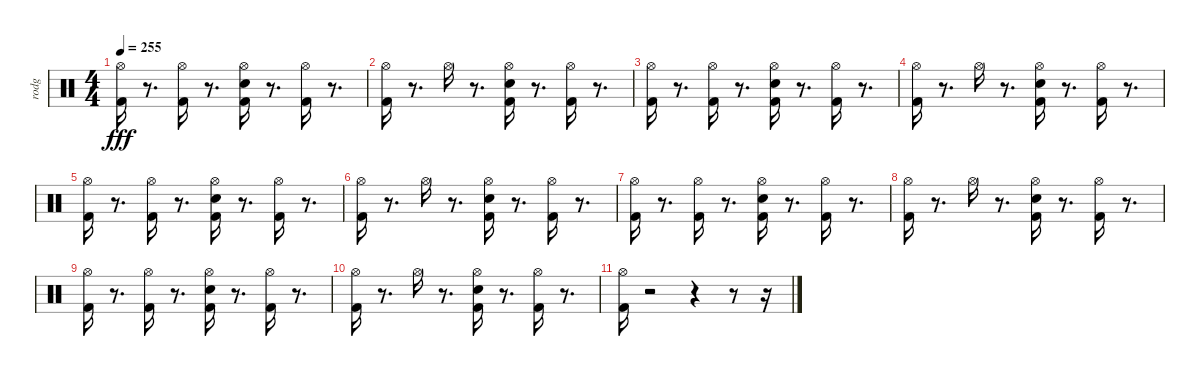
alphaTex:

\track ("rodg" "rodg") {instrument percussion}
\staff {score}
\articulation defaults
\ts (4 4)
\tempo 255
\clef neutral
\ks c
("Hi-Hat (open)" "Kick (hit) 2").16{dy fff} r.8{d} ("Kick (hit) 2" "Hi-Hat (open)").16 r.8{d} ("Kick (hit) 2" "Electric Snare (hit)" "Hi-Hat (open)").16 r.8{d} ("Kick (hit) 2" "Hi-Hat (open)").16 r.8{d} |
("Kick (hit) 2" "Hi-Hat (open)").16 r.8{d} "Hi-Hat (open)".16 r.8{d} ("Kick (hit) 2" "Electric Snare (hit)" "Hi-Hat (open)").16 r.8{d} ("Kick (hit) 2" "Hi-Hat (open)").16 r.8{d} |
("Hi-Hat (open)" "Kick (hit) 2").16 r.8{d} ("Kick (hit) 2" "Hi-Hat (open)").16 r.8{d} ("Kick (hit) 2" "Electric Snare (hit)" "Hi-Hat (open)").16 r.8{d} ("Kick (hit) 2" "Hi-Hat (open)").16 r.8{d} |
("Kick (hit) 2" "Hi-Hat (open)").16 r.8{d} "Hi-Hat (open)".16 r.8{d} ("Kick (hit) 2" "Electric Snare (hit)" "Hi-Hat (open)").16 r.8{d} ("Kick (hit) 2" "Hi-Hat (open)").16 r.8{d} |
("Hi-Hat (open)" "Kick (hit) 2").16 r.8{d} ("Kick (hit) 2" "Hi-Hat (open)").16 r.8{d} ("Kick (hit) 2" "Electric Snare (hit)" "Hi-Hat (open)").16 r.8{d} ("Kick (hit) 2" "Hi-Hat (open)").16 r.8{d} |
("Kick (hit) 2" "Hi-Hat (open)").16 r.8{d} "Hi-Hat (open)".16 r.8{d} ("Kick (hit) 2" "Electric Snare (hit)" "Hi-Hat (open)").16 r.8{d} ("Kick (hit) 2" "Hi-Hat (open)").16 r.8{d} |
("Hi-Hat (open)" "Kick (hit) 2").16 r.8{d} ("Kick (hit) 2" "Hi-Hat (open)").16 r.8{d} ("Kick (hit) 2" "Electric Snare (hit)" "Hi-Hat (open)").16 r.8{d} ("Kick (hit) 2" "Hi-Hat (open)").16 r.8{d} |
("Kick (hit) 2" "Hi-Hat (open)").16 r.8{d} "Hi-Hat (open)".16 r.8{d} ("Kick (hit) 2" "Electric Snare (hit)" "Hi-Hat (open)").16 r.8{d} ("Kick (hit) 2" "Hi-Hat (open)").16 r.8{d} |
("Hi-Hat (open)" "Kick (hit) 2").16 r.8{d} ("Kick (hit) 2" "Hi-Hat (open)").16 r.8{d} ("Kick (hit) 2" "Electric Snare (hit)" "Hi-Hat (open)").16 r.8{d} ("Kick (hit) 2" "Hi-Hat (open)").16 r.8{d} |
("Kick (hit) 2" "Hi-Hat (open)").16 r.8{d} "Hi-Hat (open)".16 r.8{d} ("Kick (hit) 2" "Electric Snare (hit)" "Hi-Hat (open)").16 r.8{d} ("Kick (hit) 2" "Hi-Hat (open)").16 r.8{d} |
("Hi-Hat (open)" "Kick (hit) 2").16 r.2 r.4 r.8 r.16
